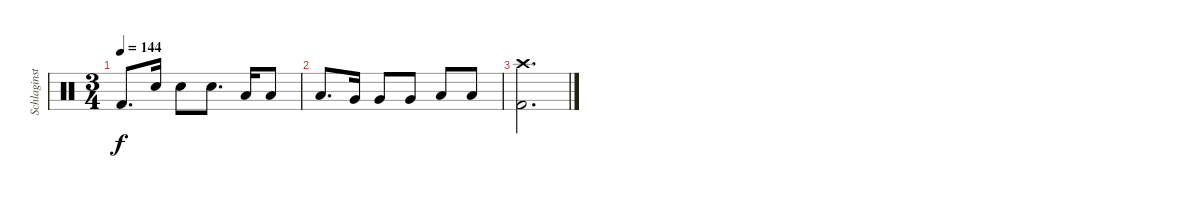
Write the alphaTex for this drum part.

\track ("Schlaginstrumente - Auswahl" "Schlaginst") {instrument percussion}
\staff {score}
\articulation defaults
\ts (3 4)
\tempo 144
\clef neutral
\ks c "Kick (hit) 2".8{d dy f} "Snare (hit) 2".16 "Snare (hit) 2".8 "Snare (hit) 2".8{d} "Low Tom (hit)".16 "Low Tom (hit)".8
|
"Low Tom (hit)".8{d} "Very Low Tom (hit)".16 "Very Low Tom (hit)".8 "Very Low Tom (hit)".8 "Low Floor Tom (hit)".8 "Low Floor Tom (hit)".8 |
("Crash high (hit)" "Kick (hit) 2").2{d}
